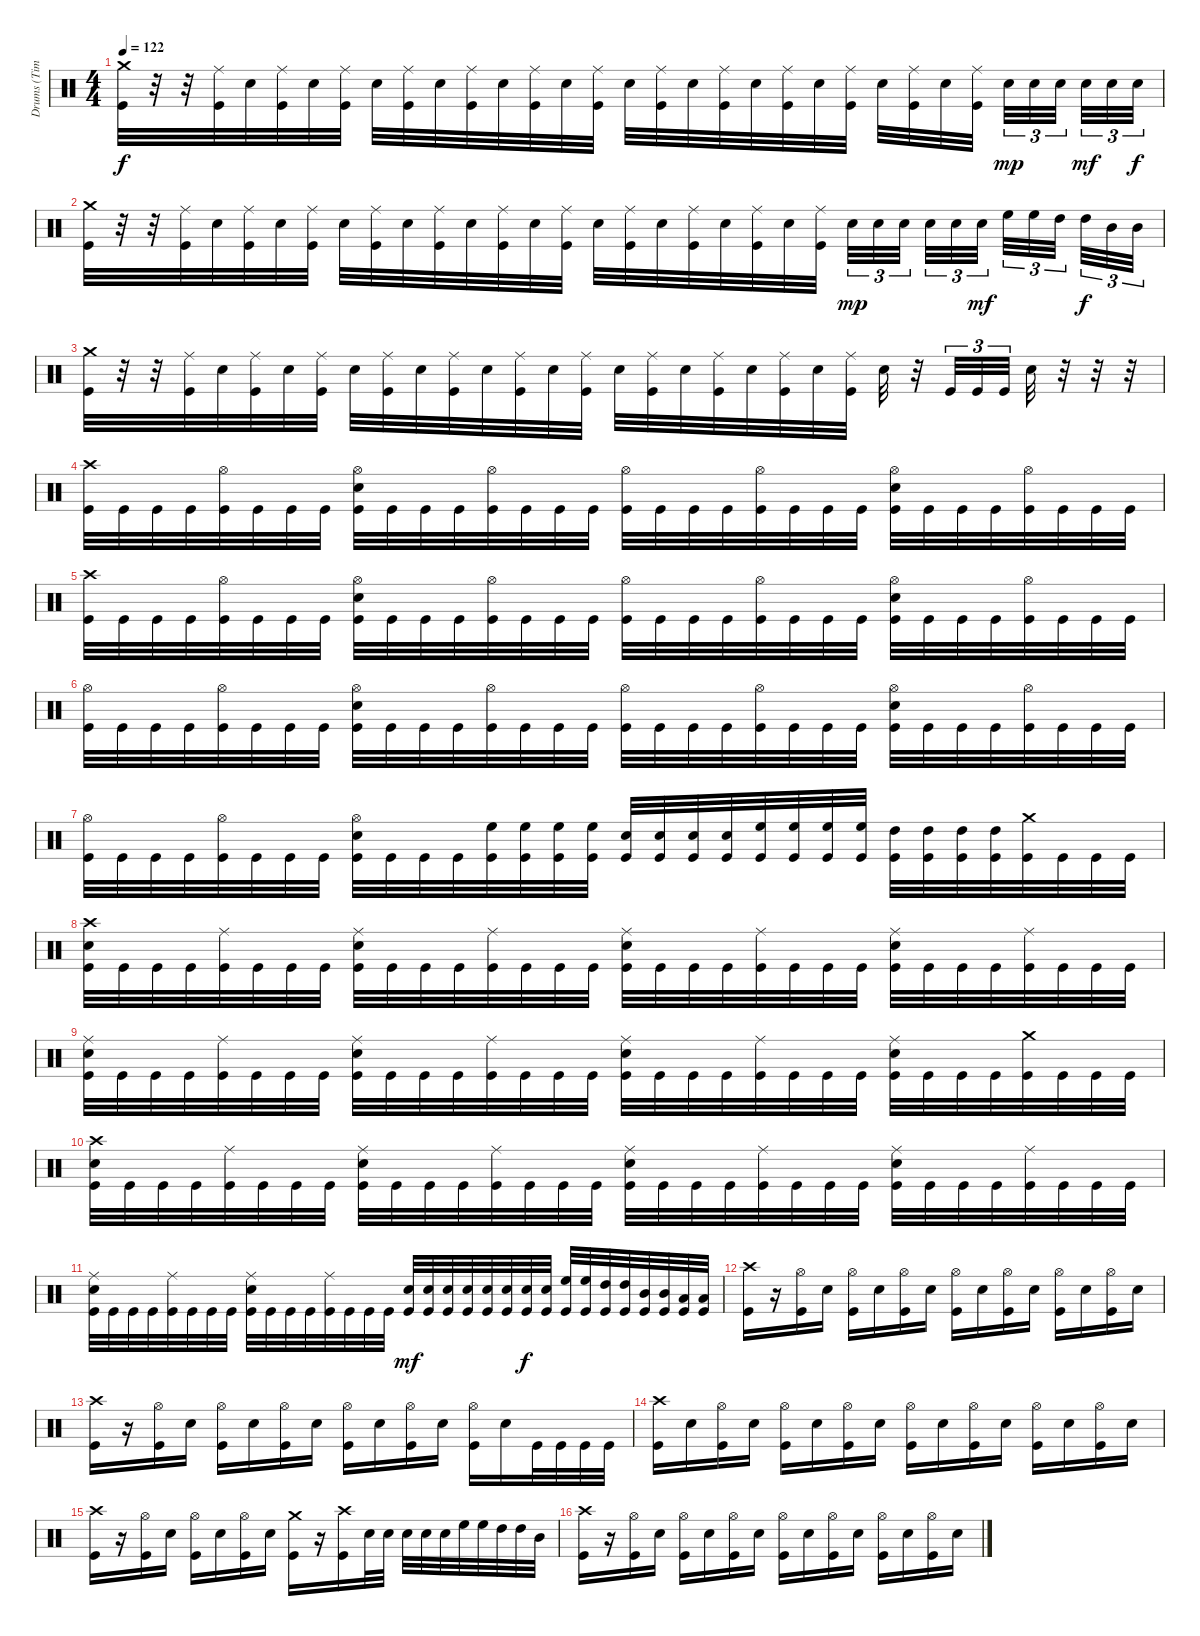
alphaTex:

\track ("Drums (Tim Yeung)" "Drums (Tim") {instrument percussion}
\staff {score}
\articulation defaults
\ts (4 4)
\tempo 122
\clef neutral
\ks c
("Crash medium (hit)" "Kick (hit)").32{dy f} r.32 r.32 ("Ride (middle)" "Kick (hit)").32 "Electric Snare (hit)".32 ("Ride (middle)" "Kick (hit)").32 "Electric Snare (hit)".32 ("Ride (middle)" "Kick (hit)").32 "Electric Snare (hit)".32 ("Ride (middle)" "Kick (hit)").32 "Electric Snare (hit)".32 ("Ride (middle)" "Kick (hit)").32 "Electric Snare (hit)".32 ("Ride (middle)" "Kick (hit)").32 "Electric Snare (hit)".32 ("Ride (middle)" "Kick (hit)").32 "Electric Snare (hit)".32 ("Ride (middle)" "Kick (hit)").32 "Electric Snare (hit)".32 ("Ride (middle)" "Kick (hit)").32 "Electric Snare (hit)".32 ("Ride (middle)" "Kick (hit)").32 "Electric Snare (hit)".32 ("Ride (middle)" "Kick (hit)").32 "Electric Snare (hit)".32 ("Ride (middle)" "Kick (hit)").32 "Electric Snare (hit)".32 ("Ride (middle)" "Kick (hit)").32 "Electric Snare (hit)".32{tu (3 2) dy mp} "Electric Snare (hit)".32{tu (3 2)} "Electric Snare (hit)".32{tu (3 2)} "Electric Snare (hit)".32{tu (3 2) dy mf} "Electric Snare (hit)".32{tu (3 2)} "Electric Snare (hit)".32{tu (3 2) dy f} |
("Crash medium (hit)" "Kick (hit)").32 r.32 r.32 ("Ride (middle)" "Kick (hit)").32 "Electric Snare (hit)".32 ("Ride (middle)" "Kick (hit)").32 "Electric Snare (hit)".32 ("Ride (middle)" "Kick (hit)").32 "Electric Snare (hit)".32 ("Ride (middle)" "Kick (hit)").32 "Electric Snare (hit)".32 ("Ride (middle)" "Kick (hit)").32 "Electric Snare (hit)".32 ("Ride (middle)" "Kick (hit)").32 "Electric Snare (hit)".32 ("Ride (middle)" "Kick (hit)").32 "Electric Snare (hit)".32 ("Ride (middle)" "Kick (hit)").32 "Electric Snare (hit)".32 ("Ride (middle)" "Kick (hit)").32 "Electric Snare (hit)".32 ("Ride (middle)" "Kick (hit)").32 "Electric Snare (hit)".32 ("Ride (middle)" "Kick (hit)").32 "Electric Snare (hit)".32{tu (3 2) dy mp} "Electric Snare (hit)".32{tu (3 2)} "Electric Snare (hit)".32{tu (3 2)} "Electric Snare (hit)".32{tu (3 2)} "Electric Snare (hit)".32{tu (3 2)} "Electric Snare (hit)".32{tu (3 2) dy mf} "High Floor Tom (hit)".32{tu (3 2)} "High Floor Tom (hit)".32{tu (3 2)} "High Tom (hit)".32{tu (3 2)} "High Tom (hit)".32{tu (3 2) dy f} "Mid Tom (hit)".32{tu (3 2)} "Mid Tom (hit)".32{tu (3 2)} |
("Crash medium (hit)" "Kick (hit)").32 r.32 r.32 ("Ride (middle)" "Kick (hit)").32 "Electric Snare (hit)".32 ("Ride (middle)" "Kick (hit)").32 "Electric Snare (hit)".32 ("Ride (middle)" "Kick (hit)").32 "Electric Snare (hit)".32 ("Ride (middle)" "Kick (hit)").32 "Electric Snare (hit)".32 ("Ride (middle)" "Kick (hit)").32 "Electric Snare (hit)".32 ("Ride (middle)" "Kick (hit)").32 "Electric Snare (hit)".32 ("Ride (middle)" "Kick (hit)").32 "Electric Snare (hit)".32 ("Ride (middle)" "Kick (hit)").32 "Electric Snare (hit)".32 ("Ride (middle)" "Kick (hit)").32 "Electric Snare (hit)".32 ("Ride (middle)" "Kick (hit)").32 "Electric Snare (hit)".32 ("Ride (middle)" "Kick (hit)").32 "Electric Snare (hit)".32 r.32 "Kick (hit)".32{tu (3 2)} "Kick (hit)".32{tu (3 2)} "Kick (hit)".32{tu (3 2)} "Electric Snare (hit)".32 r.32 r.32 r.32 |
("Crash high (hit)" "Kick (hit)").32 "Kick (hit)".32 "Kick (hit)".32 "Kick (hit)".32 ("Hi-Hat (open)" "Kick (hit)").32 "Kick (hit)".32 "Kick (hit)".32 "Kick (hit)".32 ("Hi-Hat (open)" "Electric Snare (hit)" "Kick (hit)").32 "Kick (hit)".32 "Kick (hit)".32 "Kick (hit)".32 ("Hi-Hat (open)" "Kick (hit)").32 "Kick (hit)".32 "Kick (hit)".32 "Kick (hit)".32 ("Hi-Hat (open)" "Kick (hit)").32 "Kick (hit)".32 "Kick (hit)".32 "Kick (hit)".32 ("Hi-Hat (open)" "Kick (hit)").32 "Kick (hit)".32 "Kick (hit)".32 "Kick (hit)".32 ("Hi-Hat (open)" "Electric Snare (hit)" "Kick (hit)").32 "Kick (hit)".32 "Kick (hit)".32 "Kick (hit)".32 ("Hi-Hat (open)" "Kick (hit)").32 "Kick (hit)".32 "Kick (hit)".32 "Kick (hit)".32 |
("Crash high (hit)" "Kick (hit)").32 "Kick (hit)".32 "Kick (hit)".32 "Kick (hit)".32 ("Hi-Hat (open)" "Kick (hit)").32 "Kick (hit)".32 "Kick (hit)".32 "Kick (hit)".32 ("Hi-Hat (open)" "Electric Snare (hit)" "Kick (hit)").32 "Kick (hit)".32 "Kick (hit)".32 "Kick (hit)".32 ("Hi-Hat (open)" "Kick (hit)").32 "Kick (hit)".32 "Kick (hit)".32 "Kick (hit)".32 ("Hi-Hat (open)" "Kick (hit)").32 "Kick (hit)".32 "Kick (hit)".32 "Kick (hit)".32 ("Hi-Hat (open)" "Kick (hit)").32 "Kick (hit)".32 "Kick (hit)".32 "Kick (hit)".32 ("Hi-Hat (open)" "Electric Snare (hit)" "Kick (hit)").32 "Kick (hit)".32 "Kick (hit)".32 "Kick (hit)".32 ("Hi-Hat (open)" "Kick (hit)").32 "Kick (hit)".32 "Kick (hit)".32 "Kick (hit)".32 |
("Hi-Hat (open)" "Kick (hit)").32 "Kick (hit)".32 "Kick (hit)".32 "Kick (hit)".32 ("Hi-Hat (open)" "Kick (hit)").32 "Kick (hit)".32 "Kick (hit)".32 "Kick (hit)".32 ("Hi-Hat (open)" "Electric Snare (hit)" "Kick (hit)").32 "Kick (hit)".32 "Kick (hit)".32 "Kick (hit)".32 ("Hi-Hat (open)" "Kick (hit)").32 "Kick (hit)".32 "Kick (hit)".32 "Kick (hit)".32 ("Hi-Hat (open)" "Kick (hit)").32 "Kick (hit)".32 "Kick (hit)".32 "Kick (hit)".32 ("Hi-Hat (open)" "Kick (hit)").32 "Kick (hit)".32 "Kick (hit)".32 "Kick (hit)".32 ("Hi-Hat (open)" "Electric Snare (hit)" "Kick (hit)").32 "Kick (hit)".32 "Kick (hit)".32 "Kick (hit)".32 ("Hi-Hat (open)" "Kick (hit)").32 "Kick (hit)".32 "Kick (hit)".32 "Kick (hit)".32 |
("Hi-Hat (open)" "Kick (hit)").32 "Kick (hit)".32 "Kick (hit)".32 "Kick (hit)".32 ("Hi-Hat (open)" "Kick (hit)").32 "Kick (hit)".32 "Kick (hit)".32 "Kick (hit)".32 ("Hi-Hat (open)" "Electric Snare (hit)" "Kick (hit)").32 "Kick (hit)".32 "Kick (hit)".32 "Kick (hit)".32 ("High Floor Tom (hit)" "Kick (hit)").32 ("High Floor Tom (hit)" "Kick (hit)").32 ("High Floor Tom (hit)" "Kick (hit)").32 ("High Floor Tom (hit)" "Kick (hit)").32 ("Electric Snare (hit)" "Kick (hit)").32 ("Electric Snare (hit)" "Kick (hit)").32 ("Electric Snare (hit)" "Kick (hit)").32 ("Electric Snare (hit)" "Kick (hit)").32 ("High Floor Tom (hit)" "Kick (hit)").32 ("High Floor Tom (hit)" "Kick (hit)").32 ("High Floor Tom (hit)" "Kick (hit)").32 ("High Floor Tom (hit)" "Kick (hit)").32 ("High Tom (hit)" "Kick (hit)").32 ("High Tom (hit)" "Kick (hit)").32 ("High Tom (hit)" "Kick (hit)").32 ("High Tom (hit)" "Kick (hit)").32 ("Crash medium (hit)" "Kick (hit)").32 "Kick (hit)".32 "Kick (hit)".32 "Kick (hit)".32 |
("Crash high (hit)" "Electric Snare (hit)" "Kick (hit)").32 "Kick (hit)".32 "Kick (hit)".32 "Kick (hit)".32 ("Ride (middle)" "Kick (hit)").32 "Kick (hit)".32 "Kick (hit)".32 "Kick (hit)".32 ("Ride (middle)" "Electric Snare (hit)" "Kick (hit)").32 "Kick (hit)".32 "Kick (hit)".32 "Kick (hit)".32 ("Ride (middle)" "Kick (hit)").32 "Kick (hit)".32 "Kick (hit)".32 "Kick (hit)".32 ("Ride (middle)" "Electric Snare (hit)" "Kick (hit)").32 "Kick (hit)".32 "Kick (hit)".32 "Kick (hit)".32 ("Ride (middle)" "Kick (hit)").32 "Kick (hit)".32 "Kick (hit)".32 "Kick (hit)".32 ("Ride (middle)" "Electric Snare (hit)" "Kick (hit)").32 "Kick (hit)".32 "Kick (hit)".32 "Kick (hit)".32 ("Ride (middle)" "Kick (hit)").32 "Kick (hit)".32 "Kick (hit)".32 "Kick (hit)".32 |
("Ride (middle)" "Electric Snare (hit)" "Kick (hit)").32 "Kick (hit)".32 "Kick (hit)".32 "Kick (hit)".32 ("Ride (middle)" "Kick (hit)").32 "Kick (hit)".32 "Kick (hit)".32 "Kick (hit)".32 ("Ride (middle)" "Electric Snare (hit)" "Kick (hit)").32 "Kick (hit)".32 "Kick (hit)".32 "Kick (hit)".32 ("Ride (middle)" "Kick (hit)").32 "Kick (hit)".32 "Kick (hit)".32 "Kick (hit)".32 ("Ride (middle)" "Electric Snare (hit)" "Kick (hit)").32 "Kick (hit)".32 "Kick (hit)".32 "Kick (hit)".32 ("Ride (middle)" "Kick (hit)").32 "Kick (hit)".32 "Kick (hit)".32 "Kick (hit)".32 ("Ride (middle)" "Electric Snare (hit)" "Kick (hit)").32 "Kick (hit)".32 "Kick (hit)".32 "Kick (hit)".32 ("Crash medium (hit)" "Kick (hit)").32 "Kick (hit)".32 "Kick (hit)".32 "Kick (hit)".32 |
("Crash high (hit)" "Electric Snare (hit)" "Kick (hit)").32 "Kick (hit)".32 "Kick (hit)".32 "Kick (hit)".32 ("Ride (middle)" "Kick (hit)").32 "Kick (hit)".32 "Kick (hit)".32 "Kick (hit)".32 ("Ride (middle)" "Electric Snare (hit)" "Kick (hit)").32 "Kick (hit)".32 "Kick (hit)".32 "Kick (hit)".32 ("Ride (middle)" "Kick (hit)").32 "Kick (hit)".32 "Kick (hit)".32 "Kick (hit)".32 ("Ride (middle)" "Electric Snare (hit)" "Kick (hit)").32 "Kick (hit)".32 "Kick (hit)".32 "Kick (hit)".32 ("Ride (middle)" "Kick (hit)").32 "Kick (hit)".32 "Kick (hit)".32 "Kick (hit)".32 ("Ride (middle)" "Electric Snare (hit)" "Kick (hit)").32 "Kick (hit)".32 "Kick (hit)".32 "Kick (hit)".32 ("Ride (middle)" "Kick (hit)").32 "Kick (hit)".32 "Kick (hit)".32 "Kick (hit)".32 |
("Ride (middle)" "Electric Snare (hit)" "Kick (hit)").32 "Kick (hit)".32 "Kick (hit)".32 "Kick (hit)".32 ("Ride (middle)" "Kick (hit)").32 "Kick (hit)".32 "Kick (hit)".32 "Kick (hit)".32 ("Ride (middle)" "Electric Snare (hit)" "Kick (hit)").32 "Kick (hit)".32 "Kick (hit)".32 "Kick (hit)".32 ("Ride (middle)" "Kick (hit)").32 "Kick (hit)".32 "Kick (hit)".32 "Kick (hit)".32 ("Electric Snare (hit)" "Kick (hit)").32{dy mf} ("Electric Snare (hit)" "Kick (hit)").32 ("Electric Snare (hit)" "Kick (hit)").32 ("Electric Snare (hit)" "Kick (hit)").32 ("Electric Snare (hit)" "Kick (hit)").32 ("Electric Snare (hit)" "Kick (hit)").32 ("Electric Snare (hit)" "Kick (hit)").32{dy f} ("Electric Snare (hit)" "Kick (hit)").32 ("High Floor Tom (hit)" "Kick (hit)").32 ("High Floor Tom (hit)" "Kick (hit)").32 ("High Tom (hit)" "Kick (hit)").32 ("High Tom (hit)" "Kick (hit)").32 ("Mid Tom (hit)" "Kick (hit)").32 ("Mid Tom (hit)" "Kick (hit)").32 ("Low Tom (hit)" "Kick (hit)").32 ("Low Tom (hit)" "Kick (hit)").32 |
("Crash high (hit)" "Kick (hit)").16 r.16 ("Hi-Hat (open)" "Kick (hit)").16 "Electric Snare (hit)".16 ("Hi-Hat (open)" "Kick (hit)").16 "Electric Snare (hit)".16 ("Hi-Hat (open)" "Kick (hit)").16 "Electric Snare (hit)".16 ("Hi-Hat (open)" "Kick (hit)").16 "Electric Snare (hit)".16 ("Hi-Hat (open)" "Kick (hit)").16 "Electric Snare (hit)".16 ("Hi-Hat (open)" "Kick (hit)").16 "Electric Snare (hit)".16 ("Hi-Hat (open)" "Kick (hit)").16 "Electric Snare (hit)".16 |
("Crash high (hit)" "Kick (hit)").16 r.16 ("Hi-Hat (open)" "Kick (hit)").16 "Electric Snare (hit)".16 ("Hi-Hat (open)" "Kick (hit)").16 "Electric Snare (hit)".16 ("Hi-Hat (open)" "Kick (hit)").16 "Electric Snare (hit)".16 ("Hi-Hat (open)" "Kick (hit)").16 "Electric Snare (hit)".16 ("Hi-Hat (open)" "Kick (hit)").16 "Electric Snare (hit)".16 ("Hi-Hat (open)" "Kick (hit)").16 "Electric Snare (hit)".16 "Kick (hit)".32 "Kick (hit)".32 "Kick (hit)".32 "Kick (hit)".32 |
("Crash high (hit)" "Kick (hit)").16 "Electric Snare (hit)".16 ("Hi-Hat (open)" "Kick (hit)").16 "Electric Snare (hit)".16 ("Hi-Hat (open)" "Kick (hit)").16 "Electric Snare (hit)".16 ("Hi-Hat (open)" "Kick (hit)").16 "Electric Snare (hit)".16 ("Hi-Hat (open)" "Kick (hit)").16 "Electric Snare (hit)".16 ("Hi-Hat (open)" "Kick (hit)").16 "Electric Snare (hit)".16 ("Hi-Hat (open)" "Kick (hit)").16 "Electric Snare (hit)".16 ("Hi-Hat (open)" "Kick (hit)").16 "Electric Snare (hit)".16 |
("Crash high (hit)" "Kick (hit)").16 r.16 ("Hi-Hat (open)" "Kick (hit)").16 "Electric Snare (hit)".16 ("Hi-Hat (open)" "Kick (hit)").16 "Electric Snare (hit)".16 ("Hi-Hat (open)" "Kick (hit)").16 "Electric Snare (hit)".16 ("Crash medium (hit)" "Kick (hit)").16 r.16 ("Crash high (hit)" "Kick (hit)").16 "Electric Snare (hit)".32 "Electric Snare (hit)".32 "Electric Snare (hit)".32 "Electric Snare (hit)".32 "Electric Snare (hit)".32 "High Floor Tom (hit)".32 "High Floor Tom (hit)".32 "High Tom (hit)".32 "High Tom (hit)".32 "Mid Tom (hit)".32 |
("Crash high (hit)" "Kick (hit)").16 r.16 ("Hi-Hat (open)" "Kick (hit)").16 "Electric Snare (hit)".16 ("Hi-Hat (open)" "Kick (hit)").16 "Electric Snare (hit)".16 ("Hi-Hat (open)" "Kick (hit)").16 "Electric Snare (hit)".16 ("Hi-Hat (open)" "Kick (hit)").16 "Electric Snare (hit)".16 ("Hi-Hat (open)" "Kick (hit)").16 "Electric Snare (hit)".16 ("Hi-Hat (open)" "Kick (hit)").16 "Electric Snare (hit)".16 ("Hi-Hat (open)" "Kick (hit)").16 "Electric Snare (hit)".16
